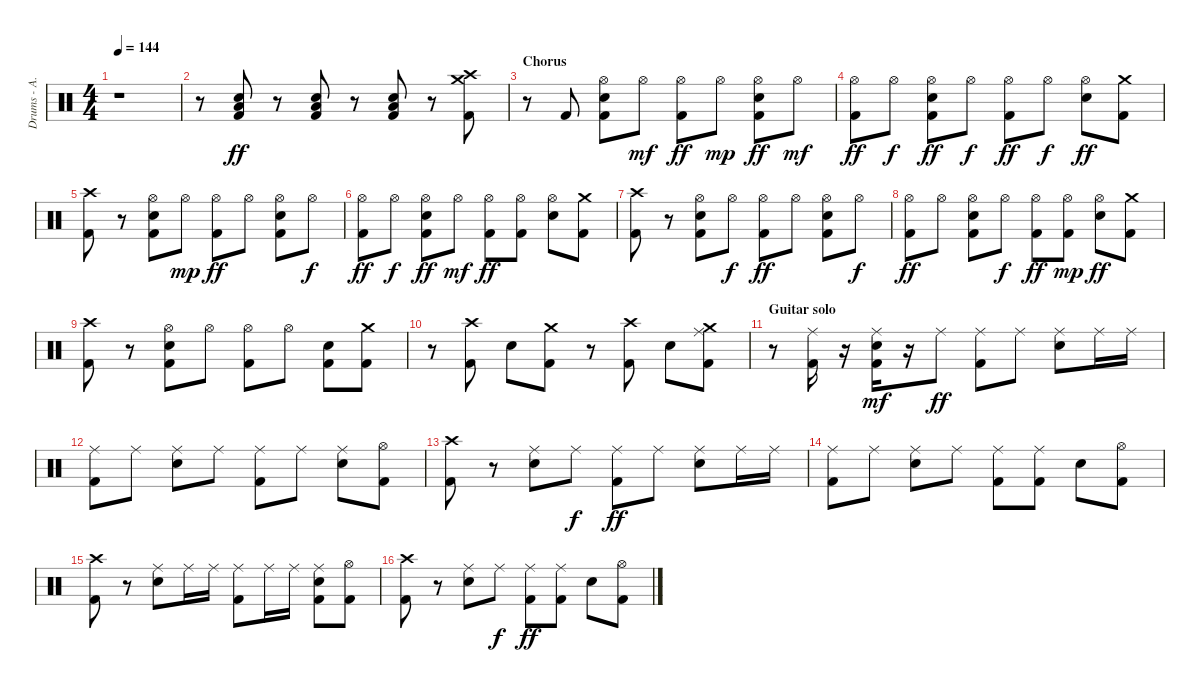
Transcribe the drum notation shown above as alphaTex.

\track ("Drums - A. Van Halen" "Drums - A.") {instrument percussion}
\staff {score}
\articulation defaults
\ts (4 4)
\tempo 144
\clef neutral
\ks c
r.1{dy ff} |
r.8 ("Kick (hit) 2" "Electric Snare (hit)" "Low Floor Tom (hit)").8 r.8 ("Electric Snare (hit)" "Kick (hit) 2" "Low Floor Tom (hit)").8 r.8 ("Low Floor Tom (hit)" "Electric Snare (hit)" "Kick (hit) 2").8 r.8 ("Crash medium (hit)" "Kick (hit) 2" "Crash high (hit)").8 |
\section ("" "Chorus")
r.8 "Kick (hit) 2".8 ("Hi-Hat (open)" "Electric Snare (hit)" "Kick (hit) 2").8 "Hi-Hat (open)".8{dy mf} ("Hi-Hat (open)" "Kick (hit) 2").8{dy ff} "Hi-Hat (open)".8{dy mp} ("Kick (hit) 2" "Electric Snare (hit)" "Hi-Hat (open)").8{dy ff} "Hi-Hat (open)".8{dy mf} |
("Hi-Hat (open)" "Kick (hit) 2").8{dy ff} "Hi-Hat (open)".8{dy f} ("Electric Snare (hit)" "Hi-Hat (open)" "Kick (hit) 2").8{dy ff} "Hi-Hat (open)".8{dy f} ("Kick (hit) 2" "Hi-Hat (open)").8{dy ff} "Hi-Hat (open)".8{dy f} ("Electric Snare (hit)" "Hi-Hat (open)").8{dy ff} ("Kick (hit) 2" "Crash medium (hit)").8 |
("Crash high (hit)" "Kick (hit) 2").8 r.8 ("Kick (hit) 2" "Electric Snare (hit)" "Hi-Hat (open)").8 "Hi-Hat (open)".8{dy mp} ("Hi-Hat (open)" "Kick (hit) 2").8{dy ff} "Hi-Hat (open)".8 ("Electric Snare (hit)" "Hi-Hat (open)" "Kick (hit) 2").8 "Hi-Hat (open)".8{dy f} |
("Kick (hit) 2" "Hi-Hat (open)").8{dy ff} "Hi-Hat (open)".8{dy f} ("Kick (hit) 2" "Electric Snare (hit)" "Hi-Hat (open)").8{dy ff} "Hi-Hat (open)".8{dy mf} ("Kick (hit) 2" "Hi-Hat (open)").8{dy ff} ("Hi-Hat (open)" "Kick (hit) 2").8 ("Hi-Hat (open)" "Electric Snare (hit)").8 ("Kick (hit) 2" "Crash medium (hit)").8 |
("Kick (hit) 2" "Crash high (hit)").8 r.8 ("Kick (hit) 2" "Hi-Hat (open)" "Electric Snare (hit)").8 "Hi-Hat (open)".8{dy f} ("Kick (hit) 2" "Hi-Hat (open)").8{dy ff} "Hi-Hat (open)".8 ("Electric Snare (hit)" "Hi-Hat (open)" "Kick (hit) 2").8 "Hi-Hat (open)".8{dy f} |
("Hi-Hat (open)" "Kick (hit) 2").8{dy ff} "Hi-Hat (open)".8 ("Kick (hit) 2" "Electric Snare (hit)" "Hi-Hat (open)").8 "Hi-Hat (open)".8{dy f} ("Kick (hit) 2" "Hi-Hat (open)").8{dy ff} ("Kick (hit) 2" "Hi-Hat (open)").8{dy mp} ("Hi-Hat (open)" "Electric Snare (hit)").8{dy ff} ("Kick (hit) 2" "Crash medium (hit)").8 |
("Kick (hit) 2" "Crash high (hit)").8 r.8 ("Hi-Hat (open)" "Kick (hit) 2" "Electric Snare (hit)").8 "Hi-Hat (open)".8 ("Kick (hit) 2" "Hi-Hat (open)").8 "Hi-Hat (open)".8 ("Electric Snare (hit)" "Kick (hit) 2").8 ("Kick (hit) 2" "Crash medium (hit)").8 |
r.8 ("Kick (hit) 2" "Crash high (hit)").8 "Electric Snare (hit)".8 ("Kick (hit) 2" "Crash medium (hit)").8 r.8 ("Kick (hit) 2" "Crash high (hit)").8 "Electric Snare (hit)".8 ("Crash medium (hit)" "Kick (hit) 2" "Ride (middle)").8 |
\section ("" "Guitar solo")
r.8 ("Ride (middle)" "Kick (hit) 2").16 r.16 ("Ride (middle)" "Electric Snare (hit)" "Kick (hit) 2").16{dy mf} r.16 "Ride (middle)".8{dy ff} ("Kick (hit) 2" "Ride (middle)").8 "Ride (middle)".8 ("Electric Snare (hit)" "Ride (middle)").8 "Ride (middle)".16 "Ride (middle)".16 |
("Kick (hit) 2" "Ride (middle)").8 "Ride (middle)".8 ("Electric Snare (hit)" "Ride (middle)").8 "Ride (middle)".8 ("Kick (hit) 2" "Ride (middle)").8 "Ride (middle)".8 ("Ride (middle)" "Electric Snare (hit)").8 ("Kick (hit) 2" "Hi-Hat (open)").8 |
("Crash high (hit)" "Kick (hit) 2").8 r.8 ("Electric Snare (hit)" "Ride (middle)").8 "Ride (middle)".8{dy f} ("Ride (middle)" "Kick (hit) 2").8{dy ff} "Ride (middle)".8 ("Electric Snare (hit)" "Ride (middle)").8 "Ride (middle)".16 "Ride (middle)".16 |
("Kick (hit) 2" "Ride (middle)").8 "Ride (middle)".8 ("Electric Snare (hit)" "Ride (middle)").8 "Ride (middle)".8 ("Kick (hit) 2" "Ride (middle)").8 ("Ride (middle)" "Kick (hit) 2").8 "Electric Snare (hit)".8 ("Hi-Hat (open)" "Kick (hit) 2").8 |
("Crash high (hit)" "Kick (hit) 2").8 r.8 ("Electric Snare (hit)" "Ride (middle)").8 "Ride (middle)".16 "Ride (middle)".16 ("Kick (hit) 2" "Ride (middle)").8 "Ride (middle)".16 "Ride (middle)".16 ("Ride (middle)" "Electric Snare (hit)" "Kick (hit) 2").8 ("Kick (hit) 2" "Hi-Hat (open)").8 |
("Crash high (hit)" "Kick (hit) 2").8 r.8 ("Electric Snare (hit)" "Ride (middle)").8 "Ride (middle)".8{dy f} ("Kick (hit) 2" "Ride (middle)").8{dy ff} ("Kick (hit) 2" "Ride (middle)").8 "Electric Snare (hit)".8 ("Kick (hit) 2" "Hi-Hat (open)").8
